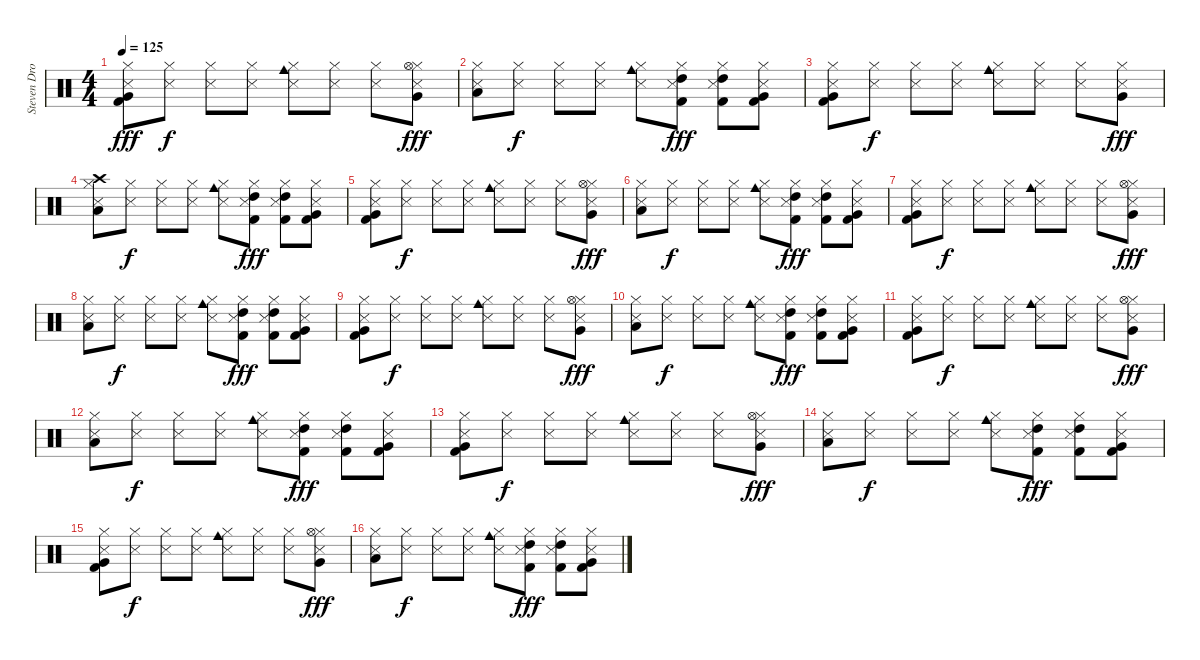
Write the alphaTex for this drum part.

\track ("Steven Drozd (Drums)" "Steven Dro") {instrument percussion}
\staff {score}
\articulation defaults
\ts (4 4)
\tempo 125
\clef neutral
\ks c
("Hi-Hat (closed)" "Metronome (hit)" "Very Low Tom (hit)" "Kick (hit) 2").8{dy fff} ("Hi-Hat (closed)" "Metronome (hit)").8{dy f} ("Hi-Hat (closed)" "Metronome (hit)").8 ("Hi-Hat (closed)" "Metronome (hit)").8 ("Hi-Hat (closed)" "Metronome (hit)" "Cowbell medium (hit)").8 ("Hi-Hat (closed)" "Metronome (hit)").8 ("Hi-Hat (closed)" "Metronome (hit)").8 ("Hi-Hat (closed)" "Metronome (hit)" "Hi-Hat (open)" "Very Low Tom (hit)").8{dy fff} |
("Hi-Hat (closed)" "Metronome (hit)" "Low Floor Tom (hit)").8 ("Hi-Hat (closed)" "Metronome (hit)").8{dy f} ("Hi-Hat (closed)" "Metronome (hit)").8 ("Hi-Hat (closed)" "Metronome (hit)").8 ("Hi-Hat (closed)" "Metronome (hit)" "Cowbell medium (hit)").8 ("Hi-Hat (closed)" "Metronome (hit)" "High Tom (hit)" "Kick (hit) 2").8{dy fff} ("Hi-Hat (closed)" "Metronome (hit)" "High Tom (hit)" "Kick (hit) 2").8 ("Hi-Hat (closed)" "Metronome (hit)" "Very Low Tom (hit)" "Kick (hit) 2").8 |
("Hi-Hat (closed)" "Metronome (hit)" "Very Low Tom (hit)" "Kick (hit) 2").8 ("Hi-Hat (closed)" "Metronome (hit)").8{dy f} ("Hi-Hat (closed)" "Metronome (hit)").8 ("Hi-Hat (closed)" "Metronome (hit)").8 ("Hi-Hat (closed)" "Metronome (hit)" "Cowbell medium (hit)").8 ("Hi-Hat (closed)" "Metronome (hit)").8 ("Hi-Hat (closed)" "Metronome (hit)").8 ("Hi-Hat (closed)" "Metronome (hit)" "Very Low Tom (hit)").8{dy fff} |
("Hi-Hat (closed)" "Metronome (hit)" "Crash high (hit)" "Low Floor Tom (hit)").8 ("Hi-Hat (closed)" "Metronome (hit)").8{dy f} ("Hi-Hat (closed)" "Metronome (hit)").8 ("Hi-Hat (closed)" "Metronome (hit)").8 ("Hi-Hat (closed)" "Metronome (hit)" "Cowbell medium (hit)").8 ("Hi-Hat (closed)" "Metronome (hit)" "High Tom (hit)" "Kick (hit) 2").8{dy fff} ("Hi-Hat (closed)" "Metronome (hit)" "High Tom (hit)" "Kick (hit) 2").8 ("Hi-Hat (closed)" "Metronome (hit)" "Very Low Tom (hit)" "Kick (hit) 2").8 |
("Hi-Hat (closed)" "Metronome (hit)" "Very Low Tom (hit)" "Kick (hit) 2").8 ("Hi-Hat (closed)" "Metronome (hit)").8{dy f} ("Hi-Hat (closed)" "Metronome (hit)").8 ("Hi-Hat (closed)" "Metronome (hit)").8 ("Hi-Hat (closed)" "Metronome (hit)" "Cowbell medium (hit)").8 ("Hi-Hat (closed)" "Metronome (hit)").8 ("Hi-Hat (closed)" "Metronome (hit)").8 ("Hi-Hat (closed)" "Metronome (hit)" "Hi-Hat (open)" "Very Low Tom (hit)").8{dy fff} |
("Hi-Hat (closed)" "Metronome (hit)" "Low Floor Tom (hit)").8 ("Hi-Hat (closed)" "Metronome (hit)").8{dy f} ("Hi-Hat (closed)" "Metronome (hit)").8 ("Hi-Hat (closed)" "Metronome (hit)").8 ("Hi-Hat (closed)" "Metronome (hit)" "Cowbell medium (hit)").8 ("Hi-Hat (closed)" "Metronome (hit)" "High Tom (hit)" "Kick (hit) 2").8{dy fff} ("Hi-Hat (closed)" "Metronome (hit)" "High Tom (hit)" "Kick (hit) 2").8 ("Hi-Hat (closed)" "Metronome (hit)" "Very Low Tom (hit)" "Kick (hit) 2").8 |
("Hi-Hat (closed)" "Metronome (hit)" "Very Low Tom (hit)" "Kick (hit) 2").8 ("Hi-Hat (closed)" "Metronome (hit)").8{dy f} ("Hi-Hat (closed)" "Metronome (hit)").8 ("Hi-Hat (closed)" "Metronome (hit)").8 ("Hi-Hat (closed)" "Metronome (hit)" "Cowbell medium (hit)").8 ("Hi-Hat (closed)" "Metronome (hit)").8 ("Hi-Hat (closed)" "Metronome (hit)").8 ("Hi-Hat (closed)" "Metronome (hit)" "Hi-Hat (open)" "Very Low Tom (hit)").8{dy fff} |
("Hi-Hat (closed)" "Metronome (hit)" "Low Floor Tom (hit)").8 ("Hi-Hat (closed)" "Metronome (hit)").8{dy f} ("Hi-Hat (closed)" "Metronome (hit)").8 ("Hi-Hat (closed)" "Metronome (hit)").8 ("Hi-Hat (closed)" "Metronome (hit)" "Cowbell medium (hit)").8 ("Hi-Hat (closed)" "Metronome (hit)" "High Tom (hit)" "Kick (hit) 2").8{dy fff} ("Hi-Hat (closed)" "Metronome (hit)" "High Tom (hit)" "Kick (hit) 2").8 ("Hi-Hat (closed)" "Metronome (hit)" "Very Low Tom (hit)" "Kick (hit) 2").8 |
("Hi-Hat (closed)" "Metronome (hit)" "Very Low Tom (hit)" "Kick (hit) 2").8 ("Hi-Hat (closed)" "Metronome (hit)").8{dy f} ("Hi-Hat (closed)" "Metronome (hit)").8 ("Hi-Hat (closed)" "Metronome (hit)").8 ("Hi-Hat (closed)" "Metronome (hit)" "Cowbell medium (hit)").8 ("Hi-Hat (closed)" "Metronome (hit)").8 ("Hi-Hat (closed)" "Metronome (hit)").8 ("Hi-Hat (closed)" "Metronome (hit)" "Hi-Hat (open)" "Very Low Tom (hit)").8{dy fff} |
("Hi-Hat (closed)" "Metronome (hit)" "Low Floor Tom (hit)").8 ("Hi-Hat (closed)" "Metronome (hit)").8{dy f} ("Hi-Hat (closed)" "Metronome (hit)").8 ("Hi-Hat (closed)" "Metronome (hit)").8 ("Hi-Hat (closed)" "Metronome (hit)" "Cowbell medium (hit)").8 ("Hi-Hat (closed)" "Metronome (hit)" "High Tom (hit)" "Kick (hit) 2").8{dy fff} ("Hi-Hat (closed)" "Metronome (hit)" "High Tom (hit)" "Kick (hit) 2").8 ("Hi-Hat (closed)" "Metronome (hit)" "Very Low Tom (hit)" "Kick (hit) 2").8 |
("Hi-Hat (closed)" "Metronome (hit)" "Very Low Tom (hit)" "Kick (hit) 2").8 ("Hi-Hat (closed)" "Metronome (hit)").8{dy f} ("Hi-Hat (closed)" "Metronome (hit)").8 ("Hi-Hat (closed)" "Metronome (hit)").8 ("Hi-Hat (closed)" "Metronome (hit)" "Cowbell medium (hit)").8 ("Hi-Hat (closed)" "Metronome (hit)").8 ("Hi-Hat (closed)" "Metronome (hit)").8 ("Hi-Hat (closed)" "Metronome (hit)" "Hi-Hat (open)" "Very Low Tom (hit)").8{dy fff} |
("Hi-Hat (closed)" "Metronome (hit)" "Low Floor Tom (hit)").8 ("Hi-Hat (closed)" "Metronome (hit)").8{dy f} ("Hi-Hat (closed)" "Metronome (hit)").8 ("Hi-Hat (closed)" "Metronome (hit)").8 ("Hi-Hat (closed)" "Metronome (hit)" "Cowbell medium (hit)").8 ("Hi-Hat (closed)" "Metronome (hit)" "High Tom (hit)" "Kick (hit) 2").8{dy fff} ("Hi-Hat (closed)" "Metronome (hit)" "High Tom (hit)" "Kick (hit) 2").8 ("Hi-Hat (closed)" "Metronome (hit)" "Very Low Tom (hit)" "Kick (hit) 2").8 |
("Hi-Hat (closed)" "Metronome (hit)" "Very Low Tom (hit)" "Kick (hit) 2").8 ("Hi-Hat (closed)" "Metronome (hit)").8{dy f} ("Hi-Hat (closed)" "Metronome (hit)").8 ("Hi-Hat (closed)" "Metronome (hit)").8 ("Hi-Hat (closed)" "Metronome (hit)" "Cowbell medium (hit)").8 ("Hi-Hat (closed)" "Metronome (hit)").8 ("Hi-Hat (closed)" "Metronome (hit)").8 ("Hi-Hat (closed)" "Metronome (hit)" "Hi-Hat (open)" "Very Low Tom (hit)").8{dy fff} |
("Hi-Hat (closed)" "Metronome (hit)" "Low Floor Tom (hit)").8 ("Hi-Hat (closed)" "Metronome (hit)").8{dy f} ("Hi-Hat (closed)" "Metronome (hit)").8 ("Hi-Hat (closed)" "Metronome (hit)").8 ("Hi-Hat (closed)" "Metronome (hit)" "Cowbell medium (hit)").8 ("Hi-Hat (closed)" "Metronome (hit)" "High Tom (hit)" "Kick (hit) 2").8{dy fff} ("Hi-Hat (closed)" "Metronome (hit)" "High Tom (hit)" "Kick (hit) 2").8 ("Hi-Hat (closed)" "Metronome (hit)" "Very Low Tom (hit)" "Kick (hit) 2").8 |
("Hi-Hat (closed)" "Metronome (hit)" "Very Low Tom (hit)" "Kick (hit) 2").8 ("Hi-Hat (closed)" "Metronome (hit)").8{dy f} ("Hi-Hat (closed)" "Metronome (hit)").8 ("Hi-Hat (closed)" "Metronome (hit)").8 ("Hi-Hat (closed)" "Metronome (hit)" "Cowbell medium (hit)").8 ("Hi-Hat (closed)" "Metronome (hit)").8 ("Hi-Hat (closed)" "Metronome (hit)").8 ("Hi-Hat (closed)" "Metronome (hit)" "Hi-Hat (open)" "Very Low Tom (hit)").8{dy fff} |
("Hi-Hat (closed)" "Metronome (hit)" "Low Floor Tom (hit)").8 ("Hi-Hat (closed)" "Metronome (hit)").8{dy f} ("Hi-Hat (closed)" "Metronome (hit)").8 ("Hi-Hat (closed)" "Metronome (hit)").8 ("Hi-Hat (closed)" "Metronome (hit)" "Cowbell medium (hit)").8 ("Hi-Hat (closed)" "Metronome (hit)" "High Tom (hit)" "Kick (hit) 2").8{dy fff} ("Hi-Hat (closed)" "Metronome (hit)" "High Tom (hit)" "Kick (hit) 2").8 ("Hi-Hat (closed)" "Metronome (hit)" "Very Low Tom (hit)" "Kick (hit) 2").8
